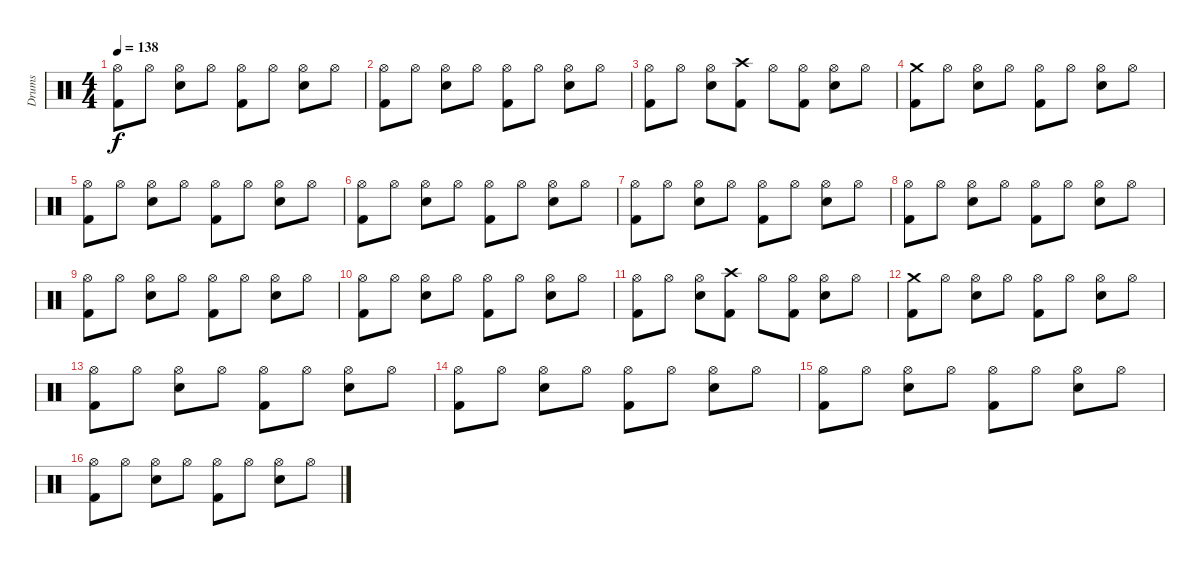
\track ("Drums" "Drums") {instrument percussion}
\staff {score}
\articulation defaults
\ts (4 4)
\tempo 138
\clef neutral
\ks c
("Hi-Hat (open)" "Kick (hit) 2").8{dy f} "Hi-Hat (open)".8 ("Hi-Hat (open)" "Snare (hit) 2").8 "Hi-Hat (open)".8 ("Hi-Hat (open)" "Kick (hit) 2").8 "Hi-Hat (open)".8 ("Hi-Hat (open)" "Snare (hit) 2").8 "Hi-Hat (open)".8 |
("Hi-Hat (open)" "Kick (hit) 2").8 "Hi-Hat (open)".8 ("Hi-Hat (open)" "Snare (hit) 2").8 "Hi-Hat (open)".8 ("Hi-Hat (open)" "Kick (hit) 2").8 "Hi-Hat (open)".8 ("Hi-Hat (open)" "Snare (hit) 2").8 "Hi-Hat (open)".8 |
("Hi-Hat (open)" "Kick (hit) 2").8 "Hi-Hat (open)".8 ("Hi-Hat (open)" "Snare (hit) 2").8 ("Crash high (hit)" "Kick (hit) 2").8 "Hi-Hat (open)".8 ("Hi-Hat (open)" "Kick (hit) 2").8 ("Hi-Hat (open)" "Snare (hit) 2").8 "Hi-Hat (open)".8 |
("Crash medium (hit)" "Kick (hit) 2").8 "Hi-Hat (open)".8 ("Hi-Hat (open)" "Snare (hit) 2").8 "Hi-Hat (open)".8 ("Hi-Hat (open)" "Kick (hit) 2").8 "Hi-Hat (open)".8 ("Hi-Hat (open)" "Snare (hit) 2").8 "Hi-Hat (open)".8 |
("Hi-Hat (open)" "Kick (hit) 2").8 "Hi-Hat (open)".8 ("Hi-Hat (open)" "Snare (hit) 2").8 "Hi-Hat (open)".8 ("Hi-Hat (open)" "Kick (hit) 2").8 "Hi-Hat (open)".8 ("Hi-Hat (open)" "Snare (hit) 2").8 "Hi-Hat (open)".8 |
("Hi-Hat (open)" "Kick (hit) 2").8 "Hi-Hat (open)".8 ("Hi-Hat (open)" "Snare (hit) 2").8 "Hi-Hat (open)".8 ("Hi-Hat (open)" "Kick (hit) 2").8 "Hi-Hat (open)".8 ("Hi-Hat (open)" "Snare (hit) 2").8 "Hi-Hat (open)".8 |
("Hi-Hat (open)" "Kick (hit) 2").8 "Hi-Hat (open)".8 ("Hi-Hat (open)" "Snare (hit) 2").8 "Hi-Hat (open)".8 ("Hi-Hat (open)" "Kick (hit) 2").8 "Hi-Hat (open)".8 ("Hi-Hat (open)" "Snare (hit) 2").8 "Hi-Hat (open)".8 |
("Hi-Hat (open)" "Kick (hit) 2").8 "Hi-Hat (open)".8 ("Hi-Hat (open)" "Snare (hit) 2").8 "Hi-Hat (open)".8 ("Hi-Hat (open)" "Kick (hit) 2").8 "Hi-Hat (open)".8 ("Hi-Hat (open)" "Snare (hit) 2").8 "Hi-Hat (open)".8 |
("Hi-Hat (open)" "Kick (hit) 2").8 "Hi-Hat (open)".8 ("Hi-Hat (open)" "Snare (hit) 2").8 "Hi-Hat (open)".8 ("Hi-Hat (open)" "Kick (hit) 2").8 "Hi-Hat (open)".8 ("Hi-Hat (open)" "Snare (hit) 2").8 "Hi-Hat (open)".8 |
("Hi-Hat (open)" "Kick (hit) 2").8 "Hi-Hat (open)".8 ("Hi-Hat (open)" "Snare (hit) 2").8 "Hi-Hat (open)".8 ("Hi-Hat (open)" "Kick (hit) 2").8 "Hi-Hat (open)".8 ("Hi-Hat (open)" "Snare (hit) 2").8 "Hi-Hat (open)".8 |
("Hi-Hat (open)" "Kick (hit) 2").8 "Hi-Hat (open)".8 ("Hi-Hat (open)" "Snare (hit) 2").8 ("Crash high (hit)" "Kick (hit) 2").8 "Hi-Hat (open)".8 ("Hi-Hat (open)" "Kick (hit) 2").8 ("Hi-Hat (open)" "Snare (hit) 2").8 "Hi-Hat (open)".8 |
("Crash medium (hit)" "Kick (hit) 2").8 "Hi-Hat (open)".8 ("Hi-Hat (open)" "Snare (hit) 2").8 "Hi-Hat (open)".8 ("Hi-Hat (open)" "Kick (hit) 2").8 "Hi-Hat (open)".8 ("Hi-Hat (open)" "Snare (hit) 2").8 "Hi-Hat (open)".8 |
("Hi-Hat (open)" "Kick (hit) 2").8 "Hi-Hat (open)".8 ("Hi-Hat (open)" "Snare (hit) 2").8 "Hi-Hat (open)".8 ("Hi-Hat (open)" "Kick (hit) 2").8 "Hi-Hat (open)".8 ("Hi-Hat (open)" "Snare (hit) 2").8 "Hi-Hat (open)".8 |
("Hi-Hat (open)" "Kick (hit) 2").8 "Hi-Hat (open)".8 ("Hi-Hat (open)" "Snare (hit) 2").8 "Hi-Hat (open)".8 ("Hi-Hat (open)" "Kick (hit) 2").8 "Hi-Hat (open)".8 ("Hi-Hat (open)" "Snare (hit) 2").8 "Hi-Hat (open)".8 |
("Hi-Hat (open)" "Kick (hit) 2").8 "Hi-Hat (open)".8 ("Hi-Hat (open)" "Snare (hit) 2").8 "Hi-Hat (open)".8 ("Hi-Hat (open)" "Kick (hit) 2").8 "Hi-Hat (open)".8 ("Hi-Hat (open)" "Snare (hit) 2").8 "Hi-Hat (open)".8 |
("Hi-Hat (open)" "Kick (hit) 2").8 "Hi-Hat (open)".8 ("Hi-Hat (open)" "Snare (hit) 2").8 "Hi-Hat (open)".8 ("Hi-Hat (open)" "Kick (hit) 2").8 "Hi-Hat (open)".8 ("Hi-Hat (open)" "Snare (hit) 2").8 "Hi-Hat (open)".8
